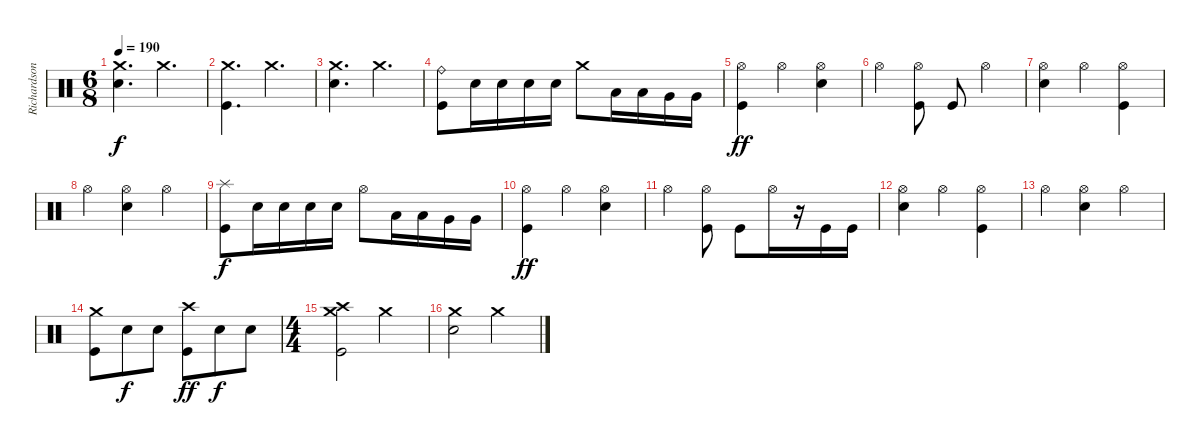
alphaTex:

\track ("Richardson" "Richardson") {instrument percussion}
\staff {score}
\articulation defaults
\ts (6 8)
\tempo 190
\clef neutral
\ks c
("Crash medium (hit)" "Electric Snare (hit)").4{d dy f} "Crash medium (hit)".4{d} |
("Crash medium (hit)" "Kick (hit)").4{d} "Crash medium (hit)".4{d} |
("Crash medium (hit)" "Electric Snare (hit)").4{d} "Crash medium (hit)".4{d} |
("Ride (bell)" "Kick (hit)").8 "Electric Snare (hit)".16 "Electric Snare (hit)".16 "Electric Snare (hit)".16 "Electric Snare (hit)".16 "Crash medium (hit)".8 "Low Tom (hit)".16 "Low Tom (hit)".16 "Very Low Tom (hit)".16 "Very Low Tom (hit)".16 |
("Hi-Hat (open)" "Kick (hit)").4{dy ff} "Hi-Hat (open)".4 ("Hi-Hat (open)" "Electric Snare (hit)").4 |
"Hi-Hat (open)".4 ("Hi-Hat (open)" "Kick (hit)").8 "Kick (hit)".8 "Hi-Hat (open)".4 |
("Hi-Hat (open)" "Electric Snare (hit)").4 "Hi-Hat (open)".4 ("Hi-Hat (open)" "Kick (hit)").4 |
"Hi-Hat (open)".4 ("Hi-Hat (open)" "Electric Snare (hit)").4 "Hi-Hat (open)".4 |
("Splash (hit)" "Kick (hit)").8{dy f} "Electric Snare (hit)".16 "Electric Snare (hit)".16 "Electric Snare (hit)".16 "Electric Snare (hit)".16 "Hi-Hat (open)".8 "Low Tom (hit)".16 "Low Tom (hit)".16 "Very Low Tom (hit)".16 "Very Low Tom (hit)".16 |
("Hi-Hat (open)" "Kick (hit)").4{dy ff} "Hi-Hat (open)".4 ("Hi-Hat (open)" "Electric Snare (hit)").4 |
"Hi-Hat (open)".4 ("Hi-Hat (open)" "Kick (hit)").8 "Kick (hit)".8 "Hi-Hat (open)".16 r.16 "Kick (hit)".16 "Kick (hit)".16 |
("Hi-Hat (open)" "Electric Snare (hit)").4 "Hi-Hat (open)".4 ("Hi-Hat (open)" "Kick (hit)").4 |
"Hi-Hat (open)".4 ("Hi-Hat (open)" "Electric Snare (hit)").4 "Hi-Hat (open)".4 |
("Crash medium (hit)" "Kick (hit)").8 "Electric Snare (hit)".8{dy f} "Electric Snare (hit)".8 ("Crash high (hit)" "Kick (hit)").8{dy ff} "Electric Snare (hit)".8{dy f} "Electric Snare (hit)".8 |
\ts (4 4)
("Crash medium (hit)" "Crash high (hit)" "Kick (hit)").2 "Crash medium (hit)".2 |
("Crash medium (hit)" "Electric Snare (hit)").2 "Crash medium (hit)".2
